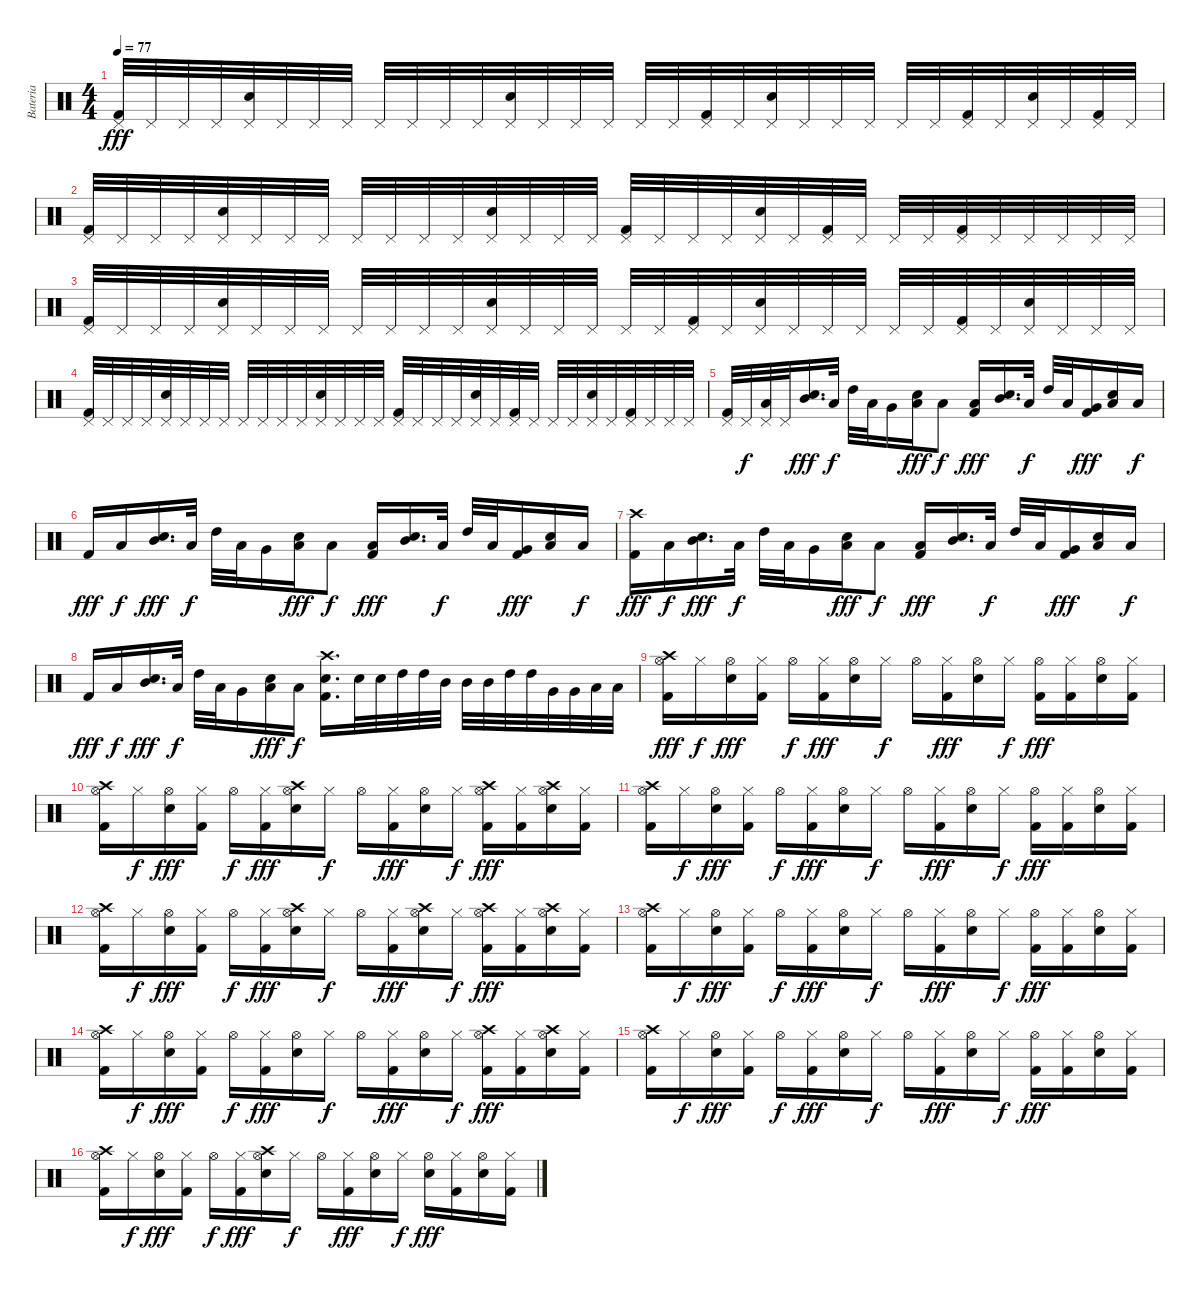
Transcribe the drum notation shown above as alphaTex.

\track ("Bateria" "Bateria") {instrument percussion}
\staff {score}
\articulation defaults
\ts (4 4)
\tempo 77
\clef neutral
\ks c
("Pedal Hi-Hat (hit)" "Kick (hit) 2").32{dy fff} "Pedal Hi-Hat (hit)".32 "Pedal Hi-Hat (hit)".32 "Pedal Hi-Hat (hit)".32 ("Pedal Hi-Hat (hit)" "Electric Snare (hit)").32 "Pedal Hi-Hat (hit)".32 "Pedal Hi-Hat (hit)".32 "Pedal Hi-Hat (hit)".32 "Pedal Hi-Hat (hit)".32 "Pedal Hi-Hat (hit)".32 "Pedal Hi-Hat (hit)".32 "Pedal Hi-Hat (hit)".32 ("Pedal Hi-Hat (hit)" "Electric Snare (hit)").32 "Pedal Hi-Hat (hit)".32 "Pedal Hi-Hat (hit)".32 "Pedal Hi-Hat (hit)".32 "Pedal Hi-Hat (hit)".32 "Pedal Hi-Hat (hit)".32 ("Pedal Hi-Hat (hit)" "Kick (hit) 2").32 "Pedal Hi-Hat (hit)".32 ("Pedal Hi-Hat (hit)" "Electric Snare (hit)").32 "Pedal Hi-Hat (hit)".32 "Pedal Hi-Hat (hit)".32 "Pedal Hi-Hat (hit)".32 "Pedal Hi-Hat (hit)".32 "Pedal Hi-Hat (hit)".32 ("Pedal Hi-Hat (hit)" "Kick (hit) 2").32 "Pedal Hi-Hat (hit)".32 ("Pedal Hi-Hat (hit)" "Electric Snare (hit)").32 "Pedal Hi-Hat (hit)".32 ("Pedal Hi-Hat (hit)" "Kick (hit) 2").32 "Pedal Hi-Hat (hit)".32 |
("Pedal Hi-Hat (hit)" "Kick (hit) 2").32 "Pedal Hi-Hat (hit)".32 "Pedal Hi-Hat (hit)".32 "Pedal Hi-Hat (hit)".32 ("Pedal Hi-Hat (hit)" "Electric Snare (hit)").32 "Pedal Hi-Hat (hit)".32 "Pedal Hi-Hat (hit)".32 "Pedal Hi-Hat (hit)".32 "Pedal Hi-Hat (hit)".32 "Pedal Hi-Hat (hit)".32 "Pedal Hi-Hat (hit)".32 "Pedal Hi-Hat (hit)".32 ("Pedal Hi-Hat (hit)" "Electric Snare (hit)").32 "Pedal Hi-Hat (hit)".32 "Pedal Hi-Hat (hit)".32 "Pedal Hi-Hat (hit)".32 ("Pedal Hi-Hat (hit)" "Kick (hit) 2").32 "Pedal Hi-Hat (hit)".32 "Pedal Hi-Hat (hit)".32 "Pedal Hi-Hat (hit)".32 ("Pedal Hi-Hat (hit)" "Electric Snare (hit)").32 "Pedal Hi-Hat (hit)".32 ("Pedal Hi-Hat (hit)" "Kick (hit) 2").32 "Pedal Hi-Hat (hit)".32 "Pedal Hi-Hat (hit)".32 "Pedal Hi-Hat (hit)".32 ("Pedal Hi-Hat (hit)" "Kick (hit) 2").32 "Pedal Hi-Hat (hit)".32 "Pedal Hi-Hat (hit)".32 "Pedal Hi-Hat (hit)".32 "Pedal Hi-Hat (hit)".32 "Pedal Hi-Hat (hit)".32 |
("Pedal Hi-Hat (hit)" "Kick (hit) 2").32 "Pedal Hi-Hat (hit)".32 "Pedal Hi-Hat (hit)".32 "Pedal Hi-Hat (hit)".32 ("Pedal Hi-Hat (hit)" "Electric Snare (hit)").32 "Pedal Hi-Hat (hit)".32 "Pedal Hi-Hat (hit)".32 "Pedal Hi-Hat (hit)".32 "Pedal Hi-Hat (hit)".32 "Pedal Hi-Hat (hit)".32 "Pedal Hi-Hat (hit)".32 "Pedal Hi-Hat (hit)".32 ("Pedal Hi-Hat (hit)" "Electric Snare (hit)").32 "Pedal Hi-Hat (hit)".32 "Pedal Hi-Hat (hit)".32 "Pedal Hi-Hat (hit)".32 "Pedal Hi-Hat (hit)".32 "Pedal Hi-Hat (hit)".32 ("Pedal Hi-Hat (hit)" "Kick (hit) 2").32 "Pedal Hi-Hat (hit)".32 ("Pedal Hi-Hat (hit)" "Electric Snare (hit)").32 "Pedal Hi-Hat (hit)".32 "Pedal Hi-Hat (hit)".32 "Pedal Hi-Hat (hit)".32 "Pedal Hi-Hat (hit)".32 "Pedal Hi-Hat (hit)".32 ("Pedal Hi-Hat (hit)" "Kick (hit) 2").32 "Pedal Hi-Hat (hit)".32 ("Pedal Hi-Hat (hit)" "Electric Snare (hit)").32 "Pedal Hi-Hat (hit)".32 "Pedal Hi-Hat (hit)".32 "Pedal Hi-Hat (hit)".32 |
("Pedal Hi-Hat (hit)" "Kick (hit) 2").32 "Pedal Hi-Hat (hit)".32 "Pedal Hi-Hat (hit)".32 "Pedal Hi-Hat (hit)".32 ("Pedal Hi-Hat (hit)" "Electric Snare (hit)").32 "Pedal Hi-Hat (hit)".32 "Pedal Hi-Hat (hit)".32 "Pedal Hi-Hat (hit)".32 "Pedal Hi-Hat (hit)".32 "Pedal Hi-Hat (hit)".32 "Pedal Hi-Hat (hit)".32 "Pedal Hi-Hat (hit)".32 ("Pedal Hi-Hat (hit)" "Electric Snare (hit)").32 "Pedal Hi-Hat (hit)".32 "Pedal Hi-Hat (hit)".32 "Pedal Hi-Hat (hit)".32 ("Pedal Hi-Hat (hit)" "Kick (hit) 2").32 "Pedal Hi-Hat (hit)".32 "Pedal Hi-Hat (hit)".32 "Pedal Hi-Hat (hit)".32 ("Pedal Hi-Hat (hit)" "Electric Snare (hit)").32 "Pedal Hi-Hat (hit)".32 ("Pedal Hi-Hat (hit)" "Kick (hit) 2").32 "Pedal Hi-Hat (hit)".32 "Pedal Hi-Hat (hit)".32 "Pedal Hi-Hat (hit)".32 ("Pedal Hi-Hat (hit)" "Electric Snare (hit)").32 "Pedal Hi-Hat (hit)".32 ("Pedal Hi-Hat (hit)" "Kick (hit) 2").32 "Pedal Hi-Hat (hit)".32 "Pedal Hi-Hat (hit)".32 "Pedal Hi-Hat (hit)".32 |
("Pedal Hi-Hat (hit)" "Kick (hit) 2").32 "Pedal Hi-Hat (hit)".32{dy f} ("Pedal Hi-Hat (hit)" "Low Tom (hit)").32 "Pedal Hi-Hat (hit)".32 ("Electric Snare (hit)" "Mid Tom (hit)").16{d dy fff} "Low Tom (hit)".32{dy f} "High Tom (hit)".32 "Low Tom (hit)".32 "Very Low Tom (hit)".16 ("Electric Snare (hit)" "Low Tom (hit)").16{dy fff} "Low Floor Tom (hit)".8{dy f} ("Low Tom (hit)" "Kick (hit) 2").16{dy fff} ("Electric Snare (hit)" "Mid Tom (hit)").16{d} "Low Tom (hit)".32{dy f} "High Tom (hit)".32 "Low Tom (hit)".32 ("Very Low Tom (hit)" "Kick (hit) 2").16{dy fff} ("Electric Snare (hit)" "Low Tom (hit)").16 "Low Floor Tom (hit)".16{dy f} |
"Kick (hit) 2".16{dy fff} "Low Tom (hit)".16{dy f} ("Electric Snare (hit)" "Mid Tom (hit)").16{d dy fff} "Low Tom (hit)".32{dy f} "High Tom (hit)".32 "Low Tom (hit)".32 "Very Low Tom (hit)".16 ("Electric Snare (hit)" "Low Tom (hit)").16{dy fff} "Low Floor Tom (hit)".8{dy f} ("Low Tom (hit)" "Kick (hit) 2").16{dy fff} ("Electric Snare (hit)" "Mid Tom (hit)").16{d} "Low Tom (hit)".32{dy f} "High Tom (hit)".32 "Low Tom (hit)".32 ("Very Low Tom (hit)" "Kick (hit) 2").16{dy fff} ("Electric Snare (hit)" "Low Tom (hit)").16 "Low Floor Tom (hit)".16{dy f} |
("Crash high (hit)" "Kick (hit) 2").16{dy fff} "Low Tom (hit)".16{dy f} ("Electric Snare (hit)" "Mid Tom (hit)").16{d dy fff} "Low Tom (hit)".32{dy f} "High Tom (hit)".32 "Low Tom (hit)".32 "Very Low Tom (hit)".16 ("Electric Snare (hit)" "Low Tom (hit)").16{dy fff} "Low Floor Tom (hit)".8{dy f} ("Low Tom (hit)" "Kick (hit) 2").16{dy fff} ("Electric Snare (hit)" "Mid Tom (hit)").16{d} "Low Tom (hit)".32{dy f} "High Tom (hit)".32 "Low Tom (hit)".32 ("Very Low Tom (hit)" "Kick (hit) 2").16{dy fff} ("Electric Snare (hit)" "Low Tom (hit)").16 "Low Floor Tom (hit)".16{dy f} |
"Kick (hit) 2".16{dy fff} "Low Tom (hit)".16{dy f} ("Electric Snare (hit)" "Mid Tom (hit)").16{d dy fff} "Low Tom (hit)".32{dy f} "High Tom (hit)".32 "Low Tom (hit)".32 "Very Low Tom (hit)".16 ("Electric Snare (hit)" "Low Tom (hit)").16{dy fff} "Low Floor Tom (hit)".16{dy f} ("Crash high (hit)" "Electric Snare (hit)" "Kick (hit) 2").16{d} "Electric Snare (hit)".32 "Electric Snare (hit)".32 "High Tom (hit)".32 "High Tom (hit)".32 "Mid Tom (hit)".32 "Mid Tom (hit)".32 "Mid Tom (hit)".32 "High Tom (hit)".32 "High Tom (hit)".32 "Very Low Tom (hit)".32 "Very Low Tom (hit)".32 "Low Floor Tom (hit)".32 "Low Floor Tom (hit)".32 |
("Crash high (hit)" "Hi-Hat (open)" "Kick (hit) 2").16{dy fff} "Hi-Hat (closed)".16{dy f} ("Hi-Hat (open)" "Electric Snare (hit)").16{dy fff} ("Hi-Hat (closed)" "Kick (hit) 2").16 "Hi-Hat (open)".16{dy f} ("Hi-Hat (closed)" "Kick (hit) 2").16{dy fff} ("Hi-Hat (open)" "Electric Snare (hit)").16 "Hi-Hat (closed)".16{dy f} "Hi-Hat (open)".16 ("Hi-Hat (closed)" "Kick (hit) 2").16{dy fff} ("Hi-Hat (open)" "Electric Snare (hit)").16 "Hi-Hat (closed)".16{dy f} ("Hi-Hat (open)" "Kick (hit) 2").16{dy fff} ("Hi-Hat (closed)" "Kick (hit) 2").16 ("Hi-Hat (open)" "Electric Snare (hit)").16 ("Hi-Hat (closed)" "Kick (hit) 2").16 |
("Crash high (hit)" "Hi-Hat (open)" "Kick (hit) 2").16 "Hi-Hat (closed)".16{dy f} ("Hi-Hat (open)" "Electric Snare (hit)").16{dy fff} ("Hi-Hat (closed)" "Kick (hit) 2").16 "Hi-Hat (open)".16{dy f} ("Hi-Hat (closed)" "Kick (hit) 2").16{dy fff} ("Crash high (hit)" "Hi-Hat (open)" "Electric Snare (hit)").16 "Hi-Hat (closed)".16{dy f} "Hi-Hat (open)".16 ("Hi-Hat (closed)" "Kick (hit) 2").16{dy fff} ("Hi-Hat (open)" "Electric Snare (hit)").16 "Hi-Hat (closed)".16{dy f} ("Crash high (hit)" "Hi-Hat (open)" "Kick (hit) 2").16{dy fff} ("Hi-Hat (closed)" "Kick (hit) 2").16 ("Crash high (hit)" "Hi-Hat (open)" "Electric Snare (hit)").16 ("Hi-Hat (closed)" "Kick (hit) 2").16 |
("Crash high (hit)" "Hi-Hat (open)" "Kick (hit) 2").16 "Hi-Hat (closed)".16{dy f} ("Hi-Hat (open)" "Electric Snare (hit)").16{dy fff} ("Hi-Hat (closed)" "Kick (hit) 2").16 "Hi-Hat (open)".16{dy f} ("Hi-Hat (closed)" "Kick (hit) 2").16{dy fff} ("Hi-Hat (open)" "Electric Snare (hit)").16 "Hi-Hat (closed)".16{dy f} "Hi-Hat (open)".16 ("Hi-Hat (closed)" "Kick (hit) 2").16{dy fff} ("Hi-Hat (open)" "Electric Snare (hit)").16 "Hi-Hat (closed)".16{dy f} ("Hi-Hat (open)" "Kick (hit) 2").16{dy fff} ("Hi-Hat (closed)" "Kick (hit) 2").16 ("Hi-Hat (open)" "Electric Snare (hit)").16 ("Hi-Hat (closed)" "Kick (hit) 2").16 |
("Crash high (hit)" "Hi-Hat (open)" "Kick (hit) 2").16 "Hi-Hat (closed)".16{dy f} ("Hi-Hat (open)" "Electric Snare (hit)").16{dy fff} ("Hi-Hat (closed)" "Kick (hit) 2").16 "Hi-Hat (open)".16{dy f} ("Hi-Hat (closed)" "Kick (hit) 2").16{dy fff} ("Crash high (hit)" "Hi-Hat (open)" "Electric Snare (hit)").16 "Hi-Hat (closed)".16{dy f} "Hi-Hat (open)".16 ("Hi-Hat (closed)" "Kick (hit) 2").16{dy fff} ("Crash high (hit)" "Hi-Hat (open)" "Electric Snare (hit)").16 "Hi-Hat (closed)".16{dy f} ("Crash high (hit)" "Hi-Hat (open)" "Kick (hit) 2").16{dy fff} ("Hi-Hat (closed)" "Kick (hit) 2").16 ("Crash high (hit)" "Hi-Hat (open)" "Electric Snare (hit)").16 ("Hi-Hat (closed)" "Kick (hit) 2").16 |
("Crash high (hit)" "Hi-Hat (open)" "Kick (hit) 2").16 "Hi-Hat (closed)".16{dy f} ("Hi-Hat (open)" "Electric Snare (hit)").16{dy fff} ("Hi-Hat (closed)" "Kick (hit) 2").16 "Hi-Hat (open)".16{dy f} ("Hi-Hat (closed)" "Kick (hit) 2").16{dy fff} ("Hi-Hat (open)" "Electric Snare (hit)").16 "Hi-Hat (closed)".16{dy f} "Hi-Hat (open)".16 ("Hi-Hat (closed)" "Kick (hit) 2").16{dy fff} ("Hi-Hat (open)" "Electric Snare (hit)").16 "Hi-Hat (closed)".16{dy f} ("Hi-Hat (open)" "Kick (hit) 2").16{dy fff} ("Hi-Hat (closed)" "Kick (hit) 2").16 ("Hi-Hat (open)" "Electric Snare (hit)").16 ("Hi-Hat (closed)" "Kick (hit) 2").16 |
("Crash high (hit)" "Hi-Hat (open)" "Kick (hit) 2").16 "Hi-Hat (closed)".16{dy f} ("Hi-Hat (open)" "Electric Snare (hit)").16{dy fff} ("Hi-Hat (closed)" "Kick (hit) 2").16 "Hi-Hat (open)".16{dy f} ("Hi-Hat (closed)" "Kick (hit) 2").16{dy fff} ("Hi-Hat (open)" "Electric Snare (hit)").16 "Hi-Hat (closed)".16{dy f} "Hi-Hat (open)".16 ("Hi-Hat (closed)" "Kick (hit) 2").16{dy fff} ("Hi-Hat (open)" "Electric Snare (hit)").16 "Hi-Hat (closed)".16{dy f} ("Crash high (hit)" "Hi-Hat (open)" "Kick (hit) 2").16{dy fff} ("Hi-Hat (closed)" "Kick (hit) 2").16 ("Crash high (hit)" "Hi-Hat (open)" "Electric Snare (hit)").16 ("Hi-Hat (closed)" "Kick (hit) 2").16 |
("Crash high (hit)" "Hi-Hat (open)" "Kick (hit) 2").16 "Hi-Hat (closed)".16{dy f} ("Hi-Hat (open)" "Electric Snare (hit)").16{dy fff} ("Hi-Hat (closed)" "Kick (hit) 2").16 "Hi-Hat (open)".16{dy f} ("Hi-Hat (closed)" "Kick (hit) 2").16{dy fff} ("Hi-Hat (open)" "Electric Snare (hit)").16 "Hi-Hat (closed)".16{dy f} "Hi-Hat (open)".16 ("Hi-Hat (closed)" "Kick (hit) 2").16{dy fff} ("Hi-Hat (open)" "Electric Snare (hit)").16 "Hi-Hat (closed)".16{dy f} ("Hi-Hat (open)" "Kick (hit) 2").16{dy fff} ("Hi-Hat (closed)" "Kick (hit) 2").16 ("Hi-Hat (open)" "Electric Snare (hit)").16 ("Hi-Hat (closed)" "Kick (hit) 2").16 |
("Crash high (hit)" "Hi-Hat (open)" "Kick (hit) 2").16 "Hi-Hat (closed)".16{dy f} ("Hi-Hat (open)" "Electric Snare (hit)").16{dy fff} ("Hi-Hat (closed)" "Kick (hit) 2").16 "Hi-Hat (open)".16{dy f} ("Hi-Hat (closed)" "Kick (hit) 2").16{dy fff} ("Crash high (hit)" "Hi-Hat (open)" "Electric Snare (hit)").16 "Hi-Hat (closed)".16{dy f} "Hi-Hat (open)".16 ("Hi-Hat (closed)" "Kick (hit) 2").16{dy fff} ("Hi-Hat (open)" "Electric Snare (hit)").16 "Hi-Hat (closed)".16{dy f} ("Hi-Hat (open)" "Electric Snare (hit)").16{dy fff} ("Hi-Hat (closed)" "Kick (hit) 2").16 ("Hi-Hat (open)" "Electric Snare (hit)").16 ("Hi-Hat (closed)" "Kick (hit) 2").16
